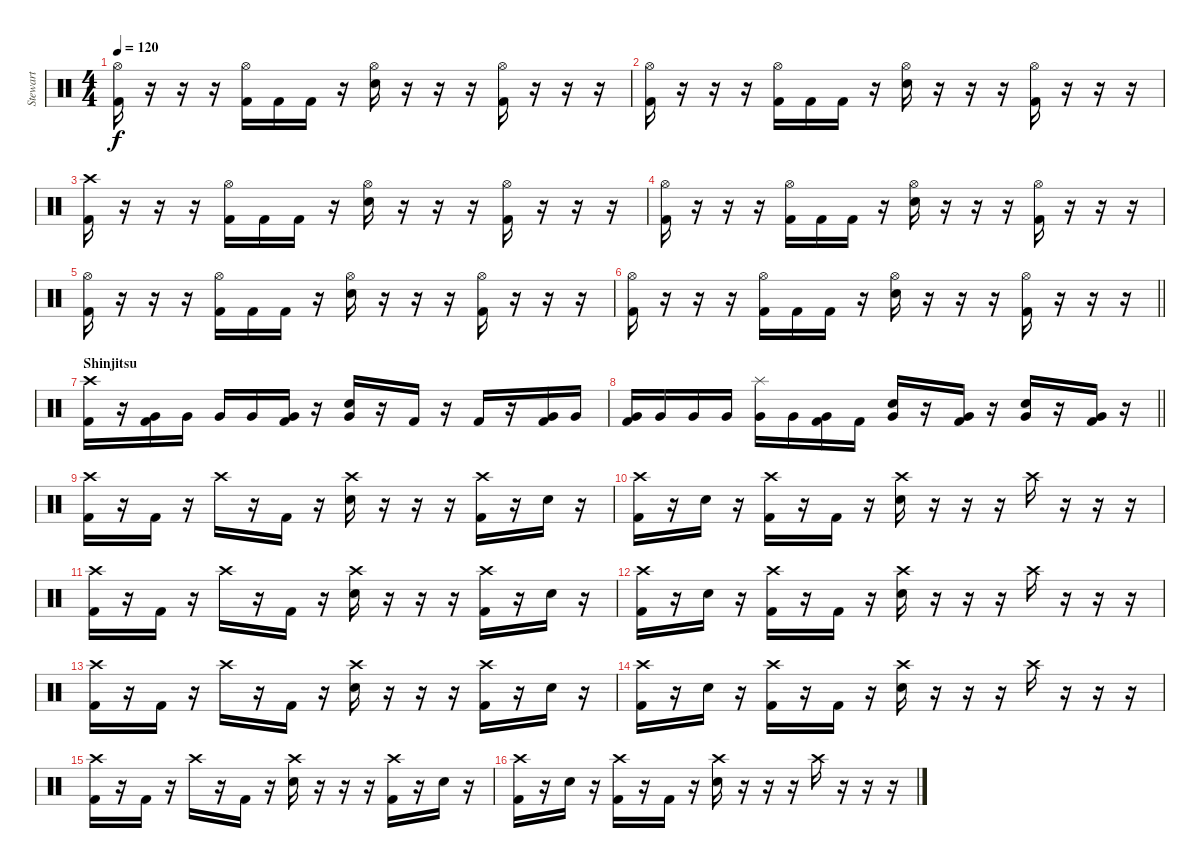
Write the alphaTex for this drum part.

\track ("Stewart" "Stewart") {instrument percussion}
\staff {score}
\articulation defaults
\ts (4 4)
\tempo 120
\clef neutral
\ks c
("Hi-Hat (open)" "Kick (hit) 2").16{dy f} r.16 r.16 r.16 ("Hi-Hat (open)" "Kick (hit) 2").16 "Kick (hit) 2".16 "Kick (hit) 2".16 r.16 ("Hi-Hat (open)" "Electric Snare (hit)").16 r.16 r.16 r.16 ("Hi-Hat (open)" "Kick (hit) 2").16 r.16 r.16 r.16 |
("Hi-Hat (open)" "Kick (hit) 2").16 r.16 r.16 r.16 ("Hi-Hat (open)" "Kick (hit) 2").16 "Kick (hit) 2".16 "Kick (hit) 2".16 r.16 ("Hi-Hat (open)" "Electric Snare (hit)").16 r.16 r.16 r.16 ("Hi-Hat (open)" "Kick (hit) 2").16 r.16 r.16 r.16 |
("Crash high (hit)" "Kick (hit) 2").16 r.16 r.16 r.16 ("Hi-Hat (open)" "Kick (hit) 2").16 "Kick (hit) 2".16 "Kick (hit) 2".16 r.16 ("Hi-Hat (open)" "Electric Snare (hit)").16 r.16 r.16 r.16 ("Hi-Hat (open)" "Kick (hit) 2").16 r.16 r.16 r.16 |
("Hi-Hat (open)" "Kick (hit) 2").16 r.16 r.16 r.16 ("Hi-Hat (open)" "Kick (hit) 2").16 "Kick (hit) 2".16 "Kick (hit) 2".16 r.16 ("Hi-Hat (open)" "Electric Snare (hit)").16 r.16 r.16 r.16 ("Hi-Hat (open)" "Kick (hit) 2").16 r.16 r.16 r.16 |
("Hi-Hat (open)" "Kick (hit) 2").16 r.16 r.16 r.16 ("Hi-Hat (open)" "Kick (hit) 2").16 "Kick (hit) 2".16 "Kick (hit) 2".16 r.16 ("Hi-Hat (open)" "Electric Snare (hit)").16 r.16 r.16 r.16 ("Hi-Hat (open)" "Kick (hit) 2").16 r.16 r.16 r.16 |
\barLineRight lightlight
("Hi-Hat (open)" "Kick (hit) 2").16 r.16 r.16 r.16 ("Hi-Hat (open)" "Kick (hit) 2").16 "Kick (hit) 2".16 "Kick (hit) 2".16 r.16 ("Hi-Hat (open)" "Electric Snare (hit)").16 r.16 r.16 r.16 ("Hi-Hat (open)" "Kick (hit) 2").16 r.16 r.16 r.16 |
\section ("" "Shinjitsu")
("Crash high (hit)" "Kick (hit) 2").16 r.16 ("Very Low Tom (hit)" "Kick (hit) 2").16 "Very Low Tom (hit)".16 "Very Low Tom (hit)".16 "Very Low Tom (hit)".16 ("Very Low Tom (hit)" "Kick (hit) 2").16 r.16 ("Very Low Tom (hit)" "Electric Snare (hit)").16 r.16 "Kick (hit) 2".16 r.16 "Kick (hit) 2".16 r.16 ("Very Low Tom (hit)" "Kick (hit) 2").16 "Very Low Tom (hit)".16 |
\barLineRight lightlight
("Very Low Tom (hit)" "Kick (hit) 2").16 "Very Low Tom (hit)".16 "Very Low Tom (hit)".16 "Very Low Tom (hit)".16 ("Very Low Tom (hit)" "Splash (hit)").16 "Very Low Tom (hit)".16 ("Very Low Tom (hit)" "Kick (hit) 2").16 "Kick (hit) 2".16 ("Very Low Tom (hit)" "Electric Snare (hit)").16 r.16 ("Very Low Tom (hit)" "Kick (hit) 2").16 r.16 ("Very Low Tom (hit)" "Electric Snare (hit)").16 r.16 ("Very Low Tom (hit)" "Kick (hit) 2").16 r.16 |
("Crash high (hit)" "Kick (hit) 2").16 r.16 "Kick (hit) 2".16 r.16 "Crash high (hit)".16 r.16 "Kick (hit) 2".16 r.16 ("Crash high (hit)" "Electric Snare (hit)").16 r.16 r.16 r.16 ("Crash high (hit)" "Kick (hit) 2").16 r.16 "Electric Snare (hit)".16 r.16 |
("Crash high (hit)" "Kick (hit) 2").16 r.16 "Electric Snare (hit)".16 r.16 ("Crash high (hit)" "Kick (hit) 2").16 r.16 "Kick (hit) 2".16 r.16 ("Crash high (hit)" "Electric Snare (hit)").16 r.16 r.16 r.16 "Crash high (hit)".16 r.16 r.16 r.16 |
("Crash high (hit)" "Kick (hit) 2").16 r.16 "Kick (hit) 2".16 r.16 "Crash high (hit)".16 r.16 "Kick (hit) 2".16 r.16 ("Crash high (hit)" "Electric Snare (hit)").16 r.16 r.16 r.16 ("Crash high (hit)" "Kick (hit) 2").16 r.16 "Electric Snare (hit)".16 r.16 |
("Crash high (hit)" "Kick (hit) 2").16 r.16 "Electric Snare (hit)".16 r.16 ("Crash high (hit)" "Kick (hit) 2").16 r.16 "Kick (hit) 2".16 r.16 ("Crash high (hit)" "Electric Snare (hit)").16 r.16 r.16 r.16 "Crash high (hit)".16 r.16 r.16 r.16 |
("Crash high (hit)" "Kick (hit) 2").16 r.16 "Kick (hit) 2".16 r.16 "Crash high (hit)".16 r.16 "Kick (hit) 2".16 r.16 ("Crash high (hit)" "Electric Snare (hit)").16 r.16 r.16 r.16 ("Crash high (hit)" "Kick (hit) 2").16 r.16 "Electric Snare (hit)".16 r.16 |
("Crash high (hit)" "Kick (hit) 2").16 r.16 "Electric Snare (hit)".16 r.16 ("Crash high (hit)" "Kick (hit) 2").16 r.16 "Kick (hit) 2".16 r.16 ("Crash high (hit)" "Electric Snare (hit)").16 r.16 r.16 r.16 "Crash high (hit)".16 r.16 r.16 r.16 |
("Crash high (hit)" "Kick (hit) 2").16 r.16 "Kick (hit) 2".16 r.16 "Crash high (hit)".16 r.16 "Kick (hit) 2".16 r.16 ("Crash high (hit)" "Electric Snare (hit)").16 r.16 r.16 r.16 ("Crash high (hit)" "Kick (hit) 2").16 r.16 "Electric Snare (hit)".16 r.16 |
("Crash high (hit)" "Kick (hit) 2").16 r.16 "Electric Snare (hit)".16 r.16 ("Crash high (hit)" "Kick (hit) 2").16 r.16 "Kick (hit) 2".16 r.16 ("Crash high (hit)" "Electric Snare (hit)").16 r.16 r.16 r.16 "Crash high (hit)".16 r.16 r.16 r.16
